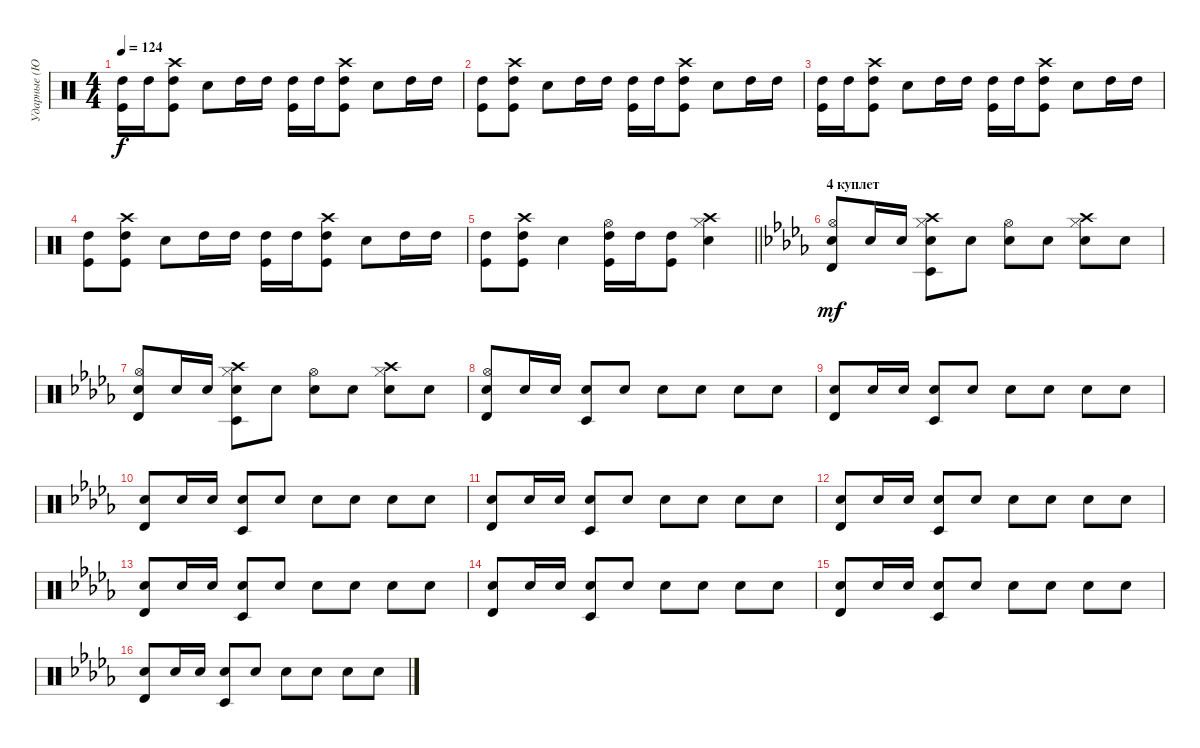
\track ("Ударные (Ю.Борзов)" "Ударные (Ю") {instrument percussion}
\staff {score}
\articulation defaults
\ts (4 4)
\tempo 124
\clef neutral
\ks aminor
("High Tom (hit)" "Kick (hit)").16{dy f} "High Tom (hit)".16 ("Crash high (hit)" "High Tom (hit)" "Kick (hit)").8 "Snare (hit) 2".8 "High Tom (hit)".16 "High Tom (hit)".16 ("High Tom (hit)" "Kick (hit)").16 "High Tom (hit)".16 ("Crash high (hit)" "High Tom (hit)" "Kick (hit)").8 "Snare (hit) 2".8 "High Tom (hit)".16 "High Tom (hit)".16 |
("High Tom (hit)" "Kick (hit)").8 ("Crash high (hit)" "High Tom (hit)" "Kick (hit)").8 "Snare (hit) 2".8 "High Tom (hit)".16 "High Tom (hit)".16 ("High Tom (hit)" "Kick (hit)").16 "High Tom (hit)".16 ("Crash high (hit)" "High Tom (hit)" "Kick (hit)").8 "Snare (hit) 2".8 "High Tom (hit)".16 "High Tom (hit)".16 |
("High Tom (hit)" "Kick (hit)").16 "High Tom (hit)".16 ("Crash high (hit)" "High Tom (hit)" "Kick (hit)").8 "Snare (hit) 2".8 "High Tom (hit)".16 "High Tom (hit)".16 ("High Tom (hit)" "Kick (hit)").16 "High Tom (hit)".16 ("Crash high (hit)" "High Tom (hit)" "Kick (hit)").8 "Snare (hit) 2".8 "High Tom (hit)".16 "High Tom (hit)".16 |
("High Tom (hit)" "Kick (hit)").8 ("Crash high (hit)" "High Tom (hit)" "Kick (hit)").8 "Snare (hit) 2".8 "High Tom (hit)".16 "High Tom (hit)".16 ("High Tom (hit)" "Kick (hit)").16 "High Tom (hit)".16 ("Crash high (hit)" "High Tom (hit)" "Kick (hit)").8 "Snare (hit) 2".8 "High Tom (hit)".16 "High Tom (hit)".16 |
\barLineRight lightlight
("High Tom (hit)" "Kick (hit)").8 ("Crash high (hit)" "High Tom (hit)" "Kick (hit)").8 "Snare (hit) 2".4 ("Hi-Hat (open)" "High Tom (hit)" "Kick (hit)").16 "High Tom (hit)".16 ("High Tom (hit)" "Kick (hit)").8 ("Crash high (hit)" "Hi-Hat (closed)" "Snare (hit) 2").4 |
\section ("" "4 куплет")
\ks bbminor
("Hi-Hat (open)" "Timbale high (hit)" "Snare (hit) 2").8{dy mf} "Snare (hit) 2".16 "Snare (hit) 2".16 ("Crash high (hit)" "Hi-Hat (closed)" "Timbale low (hit)" "Snare (hit) 2").8 "Snare (hit) 2".8 ("Hi-Hat (open)" "Snare (hit) 2").8 "Snare (hit) 2".8 ("Crash high (hit)" "Hi-Hat (closed)" "Snare (hit) 2").8 "Snare (hit) 2".8 |
("Hi-Hat (open)" "Timbale high (hit)" "Snare (hit) 2").8 "Snare (hit) 2".16 "Snare (hit) 2".16 ("Crash high (hit)" "Hi-Hat (closed)" "Timbale low (hit)" "Snare (hit) 2").8 "Snare (hit) 2".8 ("Hi-Hat (open)" "Snare (hit) 2").8 "Snare (hit) 2".8 ("Crash high (hit)" "Hi-Hat (closed)" "Snare (hit) 2").8 "Snare (hit) 2".8 |
("Hi-Hat (open)" "Timbale high (hit)" "Snare (hit) 2").8 "Snare (hit) 2".16 "Snare (hit) 2".16 ("Timbale low (hit)" "Snare (hit) 2").8 "Snare (hit) 2".8 "Snare (hit) 2".8 "Snare (hit) 2".8 "Snare (hit) 2".8 "Snare (hit) 2".8 |
("Timbale high (hit)" "Snare (hit) 2").8 "Snare (hit) 2".16 "Snare (hit) 2".16 ("Timbale low (hit)" "Snare (hit) 2").8 "Snare (hit) 2".8 "Snare (hit) 2".8 "Snare (hit) 2".8 "Snare (hit) 2".8 "Snare (hit) 2".8 |
("Timbale high (hit)" "Snare (hit) 2").8 "Snare (hit) 2".16 "Snare (hit) 2".16 ("Timbale low (hit)" "Snare (hit) 2").8 "Snare (hit) 2".8 "Snare (hit) 2".8 "Snare (hit) 2".8 "Snare (hit) 2".8 "Snare (hit) 2".8 |
("Timbale high (hit)" "Snare (hit) 2").8 "Snare (hit) 2".16 "Snare (hit) 2".16 ("Timbale low (hit)" "Snare (hit) 2").8 "Snare (hit) 2".8 "Snare (hit) 2".8 "Snare (hit) 2".8 "Snare (hit) 2".8 "Snare (hit) 2".8 |
("Timbale high (hit)" "Snare (hit) 2").8 "Snare (hit) 2".16 "Snare (hit) 2".16 ("Timbale low (hit)" "Snare (hit) 2").8 "Snare (hit) 2".8 "Snare (hit) 2".8 "Snare (hit) 2".8 "Snare (hit) 2".8 "Snare (hit) 2".8 |
("Timbale high (hit)" "Snare (hit) 2").8 "Snare (hit) 2".16 "Snare (hit) 2".16 ("Timbale low (hit)" "Snare (hit) 2").8 "Snare (hit) 2".8 "Snare (hit) 2".8 "Snare (hit) 2".8 "Snare (hit) 2".8 "Snare (hit) 2".8 |
("Timbale high (hit)" "Snare (hit) 2").8 "Snare (hit) 2".16 "Snare (hit) 2".16 ("Timbale low (hit)" "Snare (hit) 2").8 "Snare (hit) 2".8 "Snare (hit) 2".8 "Snare (hit) 2".8 "Snare (hit) 2".8 "Snare (hit) 2".8 |
("Timbale high (hit)" "Snare (hit) 2").8 "Snare (hit) 2".16 "Snare (hit) 2".16 ("Timbale low (hit)" "Snare (hit) 2").8 "Snare (hit) 2".8 "Snare (hit) 2".8 "Snare (hit) 2".8 "Snare (hit) 2".8 "Snare (hit) 2".8 |
("Timbale high (hit)" "Snare (hit) 2").8 "Snare (hit) 2".16 "Snare (hit) 2".16 ("Timbale low (hit)" "Snare (hit) 2").8 "Snare (hit) 2".8 "Snare (hit) 2".8 "Snare (hit) 2".8 "Snare (hit) 2".8 "Snare (hit) 2".8
